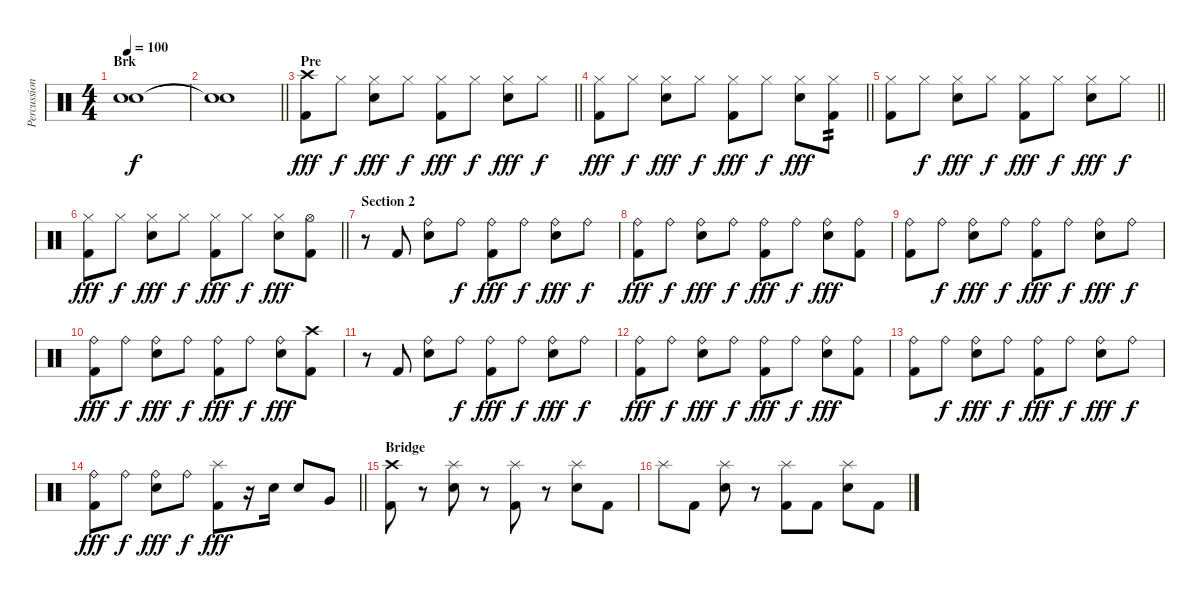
\track ("Percussion" "Percussion") {instrument percussion}
\staff {score}
\articulation defaults
\ts (4 4)
\section ("" "Brk")
\tempo 100
\clef neutral
\ks c
("Snare (hit)"{t} "Snare (hit)"{t}).1{dy f} |
\barLineRight lightlight
("Snare (hit)"{t} "Snare (hit)"{t}).1 |
\section ("" "Pre")
\barLineRight lightlight
("Crash high (hit)" "Kick (hit) 2").8{dy fff} "Hi-Hat (closed)".8{dy f} ("Hi-Hat (closed)" "Electric Snare (hit)").8{dy fff} "Hi-Hat (closed)".8{dy f} ("Hi-Hat (closed)" "Kick (hit) 2").8{dy fff} "Hi-Hat (closed)".8{dy f} ("Hi-Hat (closed)" "Electric Snare (hit)").8{dy fff} "Hi-Hat (closed)".8{dy f} |
\barLineRight lightlight
("Hi-Hat (closed)" "Kick (hit) 2").8{dy fff} "Hi-Hat (closed)".8{dy f} ("Hi-Hat (closed)" "Electric Snare (hit)").8{dy fff} "Hi-Hat (closed)".8{dy f} ("Hi-Hat (closed)" "Kick (hit) 2").8{dy fff} "Hi-Hat (closed)".8{dy f} ("Hi-Hat (closed)" "Electric Snare (hit)").8{dy fff} ("Hi-Hat (closed)" "Kick (hit) 2").8{tp 2} |
\barLineRight lightlight
("Hi-Hat (closed)" "Kick (hit) 2").8 "Hi-Hat (closed)".8{dy f} ("Hi-Hat (closed)" "Electric Snare (hit)").8{dy fff} "Hi-Hat (closed)".8{dy f} ("Hi-Hat (closed)" "Kick (hit) 2").8{dy fff} "Hi-Hat (closed)".8{dy f} ("Hi-Hat (closed)" "Electric Snare (hit)").8{dy fff} "Hi-Hat (closed)".8{dy f} |
\barLineRight lightlight
("Hi-Hat (closed)" "Kick (hit) 2").8{dy fff} "Hi-Hat (closed)".8{dy f} ("Hi-Hat (closed)" "Electric Snare (hit)").8{dy fff} "Hi-Hat (closed)".8{dy f} ("Hi-Hat (closed)" "Kick (hit) 2").8{dy fff} "Hi-Hat (closed)".8{dy f} ("Hi-Hat (closed)" "Electric Snare (hit)").8{dy fff} ("Hi-Hat (open)" "Kick (hit) 2").8 |
\section ("" "Section 2")
r.8 "Kick (hit) 2".8 ("Ride (bell)" "Electric Snare (hit)").8 "Ride (bell)".8{dy f} ("Ride (bell)" "Kick (hit) 2").8{dy fff} "Ride (bell)".8{dy f} ("Ride (bell)" "Electric Snare (hit)").8{dy fff} "Ride (bell)".8{dy f} |
("Ride (bell)" "Kick (hit) 2").8{dy fff} "Ride (bell)".8{dy f} ("Ride (bell)" "Electric Snare (hit)").8{dy fff} "Ride (bell)".8{dy f} ("Ride (bell)" "Kick (hit) 2").8{dy fff} "Ride (bell)".8{dy f} ("Ride (bell)" "Electric Snare (hit)").8{dy fff} ("Ride (bell)" "Kick (hit) 2").8 |
("Ride (bell)" "Kick (hit) 2").8 "Ride (bell)".8{dy f} ("Ride (bell)" "Electric Snare (hit)").8{dy fff} "Ride (bell)".8{dy f} ("Ride (bell)" "Kick (hit) 2").8{dy fff} "Ride (bell)".8{dy f} ("Ride (bell)" "Electric Snare (hit)").8{dy fff} "Ride (bell)".8{dy f} |
("Ride (bell)" "Kick (hit) 2").8{dy fff} "Ride (bell)".8{dy f} ("Ride (bell)" "Electric Snare (hit)").8{dy fff} "Ride (bell)".8{dy f} ("Ride (bell)" "Kick (hit) 2").8{dy fff} "Ride (bell)".8{dy f} ("Ride (bell)" "Electric Snare (hit)").8{dy fff} ("Crash high (hit)" "Kick (hit) 2").8 |
r.8 "Kick (hit) 2".8 ("Ride (bell)" "Electric Snare (hit)").8 "Ride (bell)".8{dy f} ("Ride (bell)" "Kick (hit) 2").8{dy fff} "Ride (bell)".8{dy f} ("Ride (bell)" "Electric Snare (hit)").8{dy fff} "Ride (bell)".8{dy f} |
("Ride (bell)" "Kick (hit) 2").8{dy fff} "Ride (bell)".8{dy f} ("Ride (bell)" "Electric Snare (hit)").8{dy fff} "Ride (bell)".8{dy f} ("Ride (bell)" "Kick (hit) 2").8{dy fff} "Ride (bell)".8{dy f} ("Ride (bell)" "Electric Snare (hit)").8{dy fff} ("Ride (bell)" "Kick (hit) 2").8 |
("Ride (bell)" "Kick (hit) 2").8 "Ride (bell)".8{dy f} ("Ride (bell)" "Electric Snare (hit)").8{dy fff} "Ride (bell)".8{dy f} ("Ride (bell)" "Kick (hit) 2").8{dy fff} "Ride (bell)".8{dy f} ("Ride (bell)" "Electric Snare (hit)").8{dy fff} "Ride (bell)".8{dy f} |
\barLineRight lightlight
("Ride (bell)" "Kick (hit) 2").8{dy fff} "Ride (bell)".8{dy f} ("Ride (bell)" "Electric Snare (hit)").8{dy fff} "Ride (bell)".8{dy f} ("Splash (hit)" "Kick (hit) 2").8{dy fff} r.16 "Electric Snare (hit)".16 "Electric Snare (hit)".8 "Very Low Tom (hit)".8 |
\section ("" "Bridge")
("Crash high (hit)" "Kick (hit) 2").8 r.8 ("Splash (hit)" "Electric Snare (hit)").8 r.8 ("Splash (hit)" "Kick (hit) 2").8 r.8 ("Splash (hit)" "Electric Snare (hit)").8 "Kick (hit) 2".8 |
"Splash (hit)".8 "Kick (hit) 2".8 ("Splash (hit)" "Electric Snare (hit)").8 r.8 ("Splash (hit)" "Kick (hit) 2").8 "Kick (hit) 2".8 ("Splash (hit)" "Electric Snare (hit)").8 "Kick (hit) 2".8
